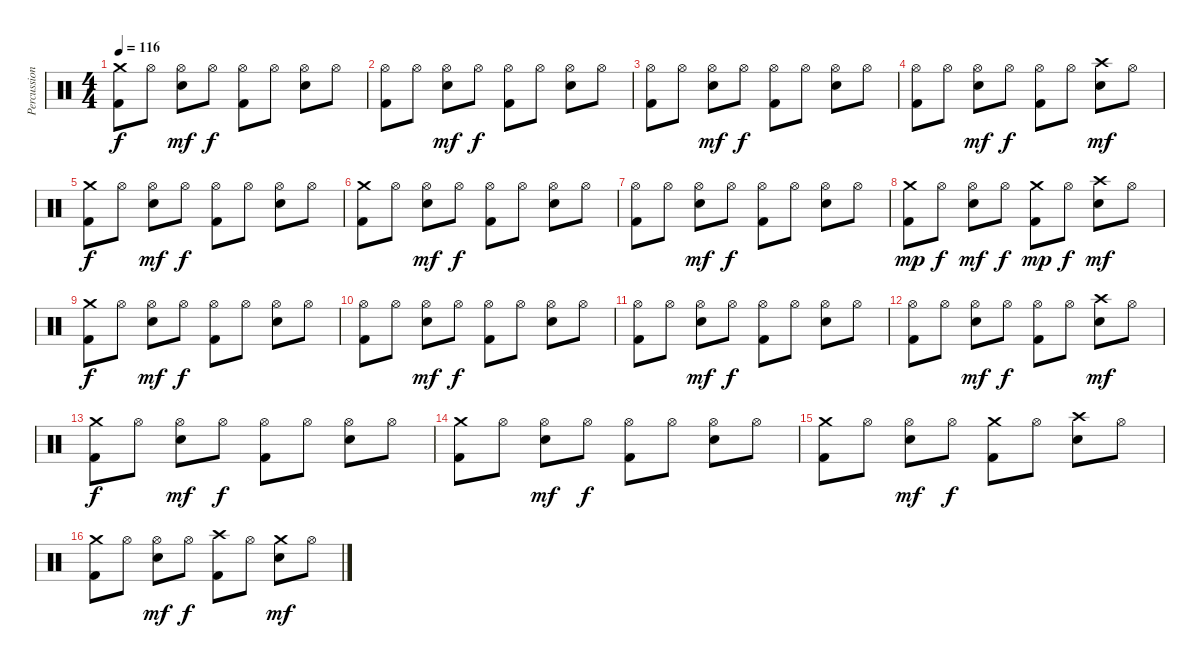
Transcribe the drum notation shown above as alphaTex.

\track ("Percussion" "Percussion") {instrument percussion}
\staff {score}
\articulation defaults
\ts (4 4)
\tempo 116
\clef neutral
\ks c
("Kick (hit) 2" "Crash medium (hit)").8{dy f} "Hi-Hat (open)".8 ("Snare (hit) 2" "Hi-Hat (open)").8{dy mf} "Hi-Hat (open)".8{dy f} ("Kick (hit) 2" "Hi-Hat (open)").8 "Hi-Hat (open)".8 ("Snare (hit) 2" "Hi-Hat (open)").8 "Hi-Hat (open)".8 |
("Kick (hit) 2" "Hi-Hat (open)").8 "Hi-Hat (open)".8 ("Snare (hit) 2" "Hi-Hat (open)").8{dy mf} "Hi-Hat (open)".8{dy f} ("Kick (hit) 2" "Hi-Hat (open)").8 "Hi-Hat (open)".8 ("Snare (hit) 2" "Hi-Hat (open)").8 "Hi-Hat (open)".8 |
("Kick (hit) 2" "Hi-Hat (open)").8 "Hi-Hat (open)".8 ("Snare (hit) 2" "Hi-Hat (open)").8{dy mf} "Hi-Hat (open)".8{dy f} ("Kick (hit) 2" "Hi-Hat (open)").8 "Hi-Hat (open)".8 ("Snare (hit) 2" "Hi-Hat (open)").8 "Hi-Hat (open)".8 |
("Kick (hit) 2" "Hi-Hat (open)").8 "Hi-Hat (open)".8 ("Snare (hit) 2" "Hi-Hat (open)").8{dy mf} "Hi-Hat (open)".8{dy f} ("Kick (hit) 2" "Hi-Hat (open)").8 "Hi-Hat (open)".8 ("Snare (hit) 2" "Crash high (hit)").8{dy mf} "Hi-Hat (open)".8 |
("Kick (hit) 2" "Crash medium (hit)").8{dy f} "Hi-Hat (open)".8 ("Snare (hit) 2" "Hi-Hat (open)").8{dy mf} "Hi-Hat (open)".8{dy f} ("Kick (hit) 2" "Hi-Hat (open)").8 "Hi-Hat (open)".8 ("Snare (hit) 2" "Hi-Hat (open)").8 "Hi-Hat (open)".8 |
("Kick (hit) 2" "Crash medium (hit)").8 "Hi-Hat (open)".8 ("Snare (hit) 2" "Hi-Hat (open)").8{dy mf} "Hi-Hat (open)".8{dy f} ("Kick (hit) 2" "Hi-Hat (open)").8 "Hi-Hat (open)".8 ("Snare (hit) 2" "Hi-Hat (open)").8 "Hi-Hat (open)".8 |
("Kick (hit) 2" "Hi-Hat (open)").8 "Hi-Hat (open)".8 ("Snare (hit) 2" "Hi-Hat (open)").8{dy mf} "Hi-Hat (open)".8{dy f} ("Kick (hit) 2" "Hi-Hat (open)").8 "Hi-Hat (open)".8 ("Snare (hit) 2" "Hi-Hat (open)").8 "Hi-Hat (open)".8 |
("Kick (hit) 2" "Crash medium (hit)").8{dy mp} "Hi-Hat (open)".8{dy f} ("Snare (hit) 2" "Hi-Hat (open)").8{dy mf} "Hi-Hat (open)".8{dy f} ("Kick (hit) 2" "Crash medium (hit)").8{dy mp} "Hi-Hat (open)".8{dy f} ("Snare (hit) 2" "Crash high (hit)").8{dy mf} "Hi-Hat (open)".8 |
("Kick (hit) 2" "Crash medium (hit)").8{dy f} "Hi-Hat (open)".8 ("Snare (hit) 2" "Hi-Hat (open)").8{dy mf} "Hi-Hat (open)".8{dy f} ("Kick (hit) 2" "Hi-Hat (open)").8 "Hi-Hat (open)".8 ("Snare (hit) 2" "Hi-Hat (open)").8 "Hi-Hat (open)".8 |
("Kick (hit) 2" "Hi-Hat (open)").8 "Hi-Hat (open)".8 ("Snare (hit) 2" "Hi-Hat (open)").8{dy mf} "Hi-Hat (open)".8{dy f} ("Kick (hit) 2" "Hi-Hat (open)").8 "Hi-Hat (open)".8 ("Snare (hit) 2" "Hi-Hat (open)").8 "Hi-Hat (open)".8 |
("Kick (hit) 2" "Hi-Hat (open)").8 "Hi-Hat (open)".8 ("Snare (hit) 2" "Hi-Hat (open)").8{dy mf} "Hi-Hat (open)".8{dy f} ("Kick (hit) 2" "Hi-Hat (open)").8 "Hi-Hat (open)".8 ("Snare (hit) 2" "Hi-Hat (open)").8 "Hi-Hat (open)".8 |
("Kick (hit) 2" "Hi-Hat (open)").8 "Hi-Hat (open)".8 ("Snare (hit) 2" "Hi-Hat (open)").8{dy mf} "Hi-Hat (open)".8{dy f} ("Kick (hit) 2" "Hi-Hat (open)").8 "Hi-Hat (open)".8 ("Snare (hit) 2" "Crash high (hit)").8{dy mf} "Hi-Hat (open)".8 |
("Kick (hit) 2" "Crash medium (hit)").8{dy f} "Hi-Hat (open)".8 ("Snare (hit) 2" "Hi-Hat (open)").8{dy mf} "Hi-Hat (open)".8{dy f} ("Kick (hit) 2" "Hi-Hat (open)").8 "Hi-Hat (open)".8 ("Snare (hit) 2" "Hi-Hat (open)").8 "Hi-Hat (open)".8 |
("Kick (hit) 2" "Crash medium (hit)").8 "Hi-Hat (open)".8 ("Snare (hit) 2" "Hi-Hat (open)").8{dy mf} "Hi-Hat (open)".8{dy f} ("Kick (hit) 2" "Hi-Hat (open)").8 "Hi-Hat (open)".8 ("Snare (hit) 2" "Hi-Hat (open)").8 "Hi-Hat (open)".8 |
("Kick (hit) 2" "Crash medium (hit)").8 "Hi-Hat (open)".8 ("Snare (hit) 2" "Hi-Hat (open)").8{dy mf} "Hi-Hat (open)".8{dy f} ("Kick (hit) 2" "Crash medium (hit)").8 "Hi-Hat (open)".8 ("Snare (hit) 2" "Crash high (hit)").8 "Hi-Hat (open)".8 |
("Kick (hit) 2" "Crash medium (hit)").8 "Hi-Hat (open)".8 ("Snare (hit) 2" "Hi-Hat (open)").8{dy mf} "Hi-Hat (open)".8{dy f} ("Kick (hit) 2" "Crash high (hit)").8 "Hi-Hat (open)".8 ("Snare (hit) 2" "Crash medium (hit)").8{dy mf} "Hi-Hat (open)".8
